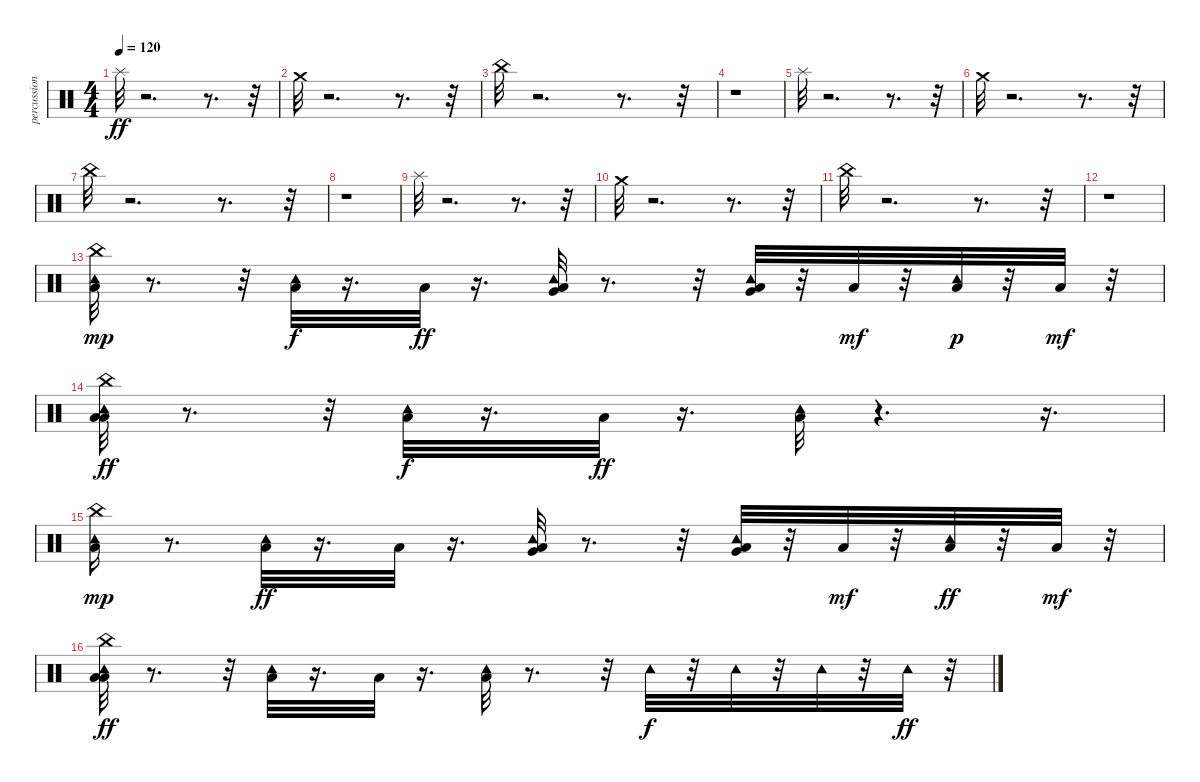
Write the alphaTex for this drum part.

\track ("percussion" "percussion") {instrument percussion}
\staff {score}
\articulation defaults
\ts (4 4)
\tempo 120
\clef neutral
\ks c "Splash (hit)".32{dy ff}
r.2{d} r.8{d} r.32 |
"Crash medium (hit)".32 r.2{d} r.8{d} r.32 |
"China (hit)".32 r.2{d} r.8{d} r.32 |
r.1 |
"Splash (hit)".32 r.2{d} r.8{d} r.32 |
"Crash medium (hit)".32 r.2{d} r.8{d} r.32 |
"China (hit)".32 r.2{d} r.8{d} r.32 |
r.1 |
"Splash (hit)".32 r.2{d} r.8{d} r.32 |
"Crash medium (hit)".32 r.2{d} r.8{d} r.32 |
"China (hit)".32 r.2{d} r.8{d} r.32 |
r.1 |
("Low Floor Tom (hit)" "China (hit)" "Tambourine (hit)").32{dy mp} r.8{d} r.32 ("Low Floor Tom (hit)" "Tambourine (hit)").32{dy f} r.16{d} "Low Floor Tom (hit)".32{dy ff} r.16{d} ("Low Floor Tom (hit)" "Very Low Tom (hit)" "Tambourine (hit)").32 r.8{d} r.32 ("Very Low Tom (hit)" "Low Floor Tom (hit)" "Tambourine (hit)").32 r.32 "Low Floor Tom (hit)".32{dy mf} r.32 ("Low Floor Tom (hit)" "Tambourine (hit)").32{dy p} r.32 "Low Floor Tom (hit)".32{dy mf} r.32 |
("Low Floor Tom (hit)" "China (hit)" "Low Floor Tom (hit)" "Tambourine (hit)").32{dy ff} r.8{d} r.32 ("Low Floor Tom (hit)" "Tambourine (hit)").32{dy f} r.16{d} "Low Floor Tom (hit)".32{dy ff} r.16{d} ("Low Floor Tom (hit)" "Tambourine (hit)").32 r.4{d} r.16{d} |
("Low Floor Tom (hit)" "China (hit)" "Tambourine (hit)").16{dy mp} r.8{d} ("Low Floor Tom (hit)" "Tambourine (hit)").32{dy ff} r.16{d} "Low Floor Tom (hit)".32 r.16{d} ("Low Floor Tom (hit)" "Very Low Tom (hit)" "Tambourine (hit)").32 r.8{d} r.32 ("Very Low Tom (hit)" "Low Floor Tom (hit)" "Tambourine (hit)").32 r.32 "Low Floor Tom (hit)".32{dy mf} r.32 ("Low Floor Tom (hit)" "Tambourine (hit)").32{dy ff} r.32 "Low Floor Tom (hit)".32{dy mf} r.32 |
("Low Floor Tom (hit)" "China (hit)" "Low Floor Tom (hit)" "Tambourine (hit)").32{dy ff} r.8{d} r.32 ("Low Floor Tom (hit)" "Tambourine (hit)").32 r.16{d} "Low Floor Tom (hit)".32 r.16{d} ("Low Floor Tom (hit)" "Tambourine (hit)").32 r.8{d} r.32 "Tambourine (hit)".32{dy f} r.32 "Tambourine (hit)".32 r.32 "Tambourine (hit)".32 r.32 "Tambourine (hit)".32{dy ff} r.32
